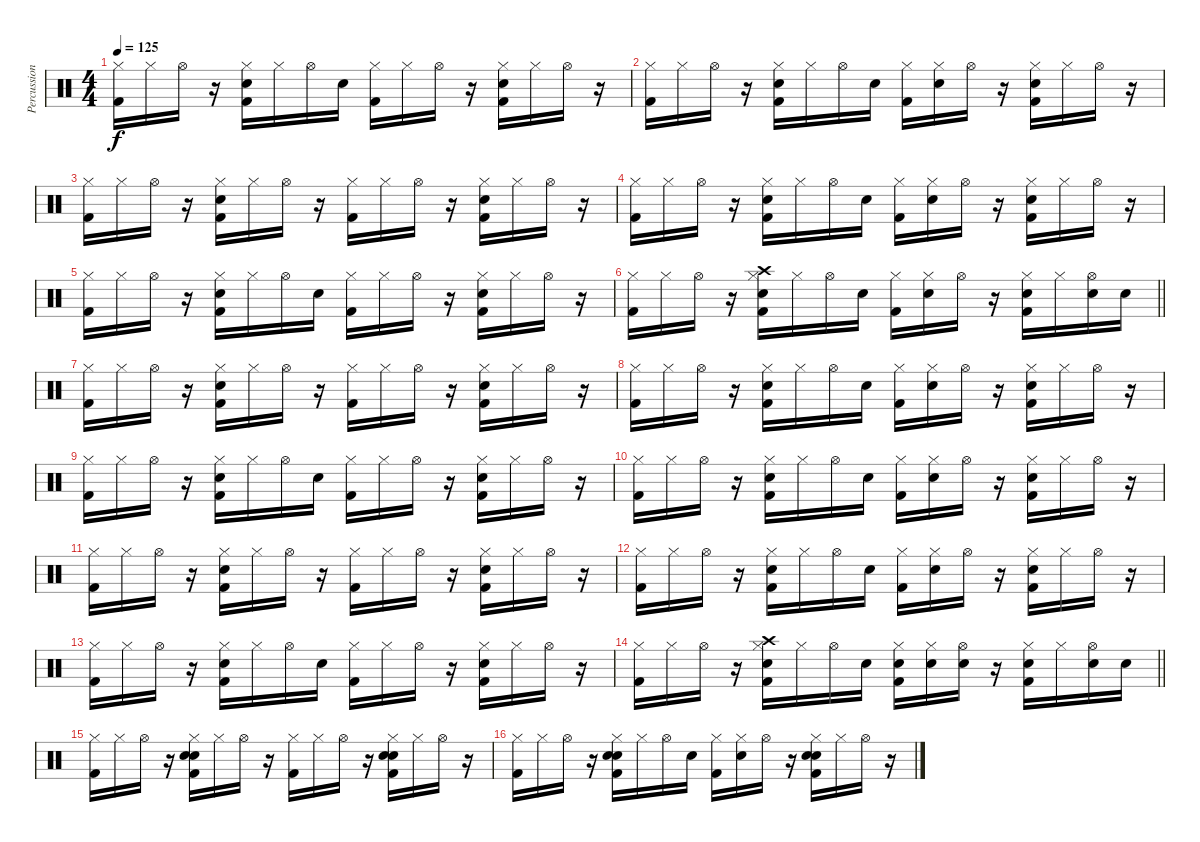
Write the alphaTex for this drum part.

\track ("Percussion" "Percussion") {instrument percussion}
\staff {score}
\articulation defaults
\ts (4 4)
\tempo 125
\clef neutral
\ks c
("Hi-Hat (closed)" "Kick (hit) 2").16{dy f} "Hi-Hat (closed)".16 "Hi-Hat (open)".16 r.16 ("Hi-Hat (closed)" "Electric Snare (hit)" "Kick (hit) 2").16 "Hi-Hat (closed)".16 "Hi-Hat (open)".16 "Electric Snare (hit)".16 ("Hi-Hat (closed)" "Kick (hit) 2").16 "Hi-Hat (closed)".16 "Hi-Hat (open)".16 r.16 ("Hi-Hat (closed)" "Electric Snare (hit)" "Kick (hit) 2").16 "Hi-Hat (closed)".16 "Hi-Hat (open)".16 r.16 |
("Hi-Hat (closed)" "Kick (hit) 2").16 "Hi-Hat (closed)".16 "Hi-Hat (open)".16 r.16 ("Hi-Hat (closed)" "Electric Snare (hit)" "Kick (hit) 2").16 "Hi-Hat (closed)".16 "Hi-Hat (open)".16 "Electric Snare (hit)".16 ("Hi-Hat (closed)" "Kick (hit) 2").16 ("Hi-Hat (closed)" "Electric Snare (hit)").16 "Hi-Hat (open)".16 r.16 ("Hi-Hat (closed)" "Electric Snare (hit)" "Kick (hit) 2").16 "Hi-Hat (closed)".16 "Hi-Hat (open)".16 r.16 |
("Hi-Hat (closed)" "Kick (hit) 2").16 "Hi-Hat (closed)".16 "Hi-Hat (open)".16 r.16 ("Hi-Hat (closed)" "Electric Snare (hit)" "Kick (hit) 2").16 "Hi-Hat (closed)".16 "Hi-Hat (open)".16 r.16 ("Hi-Hat (closed)" "Kick (hit) 2").16 "Hi-Hat (closed)".16 "Hi-Hat (open)".16 r.16 ("Hi-Hat (closed)" "Electric Snare (hit)" "Kick (hit) 2").16 "Hi-Hat (closed)".16 "Hi-Hat (open)".16 r.16 |
("Hi-Hat (closed)" "Kick (hit) 2").16 "Hi-Hat (closed)".16 "Hi-Hat (open)".16 r.16 ("Hi-Hat (closed)" "Electric Snare (hit)" "Kick (hit) 2").16 "Hi-Hat (closed)".16 "Hi-Hat (open)".16 "Electric Snare (hit)".16 ("Hi-Hat (closed)" "Kick (hit) 2").16 ("Hi-Hat (closed)" "Electric Snare (hit)").16 "Hi-Hat (open)".16 r.16 ("Hi-Hat (closed)" "Electric Snare (hit)" "Kick (hit) 2").16 "Hi-Hat (closed)".16 "Hi-Hat (open)".16 r.16 |
("Hi-Hat (closed)" "Kick (hit) 2").16 "Hi-Hat (closed)".16 "Hi-Hat (open)".16 r.16 ("Hi-Hat (closed)" "Electric Snare (hit)" "Kick (hit) 2").16 "Hi-Hat (closed)".16 "Hi-Hat (open)".16 "Electric Snare (hit)".16 ("Hi-Hat (closed)" "Kick (hit) 2").16 "Hi-Hat (closed)".16 "Hi-Hat (open)".16 r.16 ("Hi-Hat (closed)" "Electric Snare (hit)" "Kick (hit) 2").16 "Hi-Hat (closed)".16 "Hi-Hat (open)".16 r.16 |
\barLineRight lightlight
("Hi-Hat (closed)" "Kick (hit) 2").16 "Hi-Hat (closed)".16 "Hi-Hat (open)".16 r.16 ("Hi-Hat (closed)" "Crash high (hit)" "Electric Snare (hit)" "Kick (hit) 2").16 "Hi-Hat (closed)".16 "Hi-Hat (open)".16 "Electric Snare (hit)".16 ("Hi-Hat (closed)" "Kick (hit) 2").16 ("Hi-Hat (closed)" "Electric Snare (hit)").16 "Hi-Hat (open)".16 r.16 ("Hi-Hat (closed)" "Electric Snare (hit)" "Kick (hit) 2").16 "Hi-Hat (closed)".16 ("Hi-Hat (open)" "Electric Snare (hit)").16 "Electric Snare (hit)".16 |
("Hi-Hat (closed)" "Kick (hit) 2").16 "Hi-Hat (closed)".16 "Hi-Hat (open)".16 r.16 ("Hi-Hat (closed)" "Electric Snare (hit)" "Kick (hit) 2").16 "Hi-Hat (closed)".16 "Hi-Hat (open)".16 r.16 ("Hi-Hat (closed)" "Kick (hit) 2").16 "Hi-Hat (closed)".16 "Hi-Hat (open)".16 r.16 ("Hi-Hat (closed)" "Electric Snare (hit)" "Kick (hit) 2").16 "Hi-Hat (closed)".16 "Hi-Hat (open)".16 r.16 |
("Hi-Hat (closed)" "Kick (hit) 2").16 "Hi-Hat (closed)".16 "Hi-Hat (open)".16 r.16 ("Hi-Hat (closed)" "Electric Snare (hit)" "Kick (hit) 2").16 "Hi-Hat (closed)".16 "Hi-Hat (open)".16 "Electric Snare (hit)".16 ("Hi-Hat (closed)" "Kick (hit) 2").16 ("Hi-Hat (closed)" "Electric Snare (hit)").16 "Hi-Hat (open)".16 r.16 ("Hi-Hat (closed)" "Electric Snare (hit)" "Kick (hit) 2").16 "Hi-Hat (closed)".16 "Hi-Hat (open)".16 r.16 |
("Hi-Hat (closed)" "Kick (hit) 2").16 "Hi-Hat (closed)".16 "Hi-Hat (open)".16 r.16 ("Hi-Hat (closed)" "Electric Snare (hit)" "Kick (hit) 2").16 "Hi-Hat (closed)".16 "Hi-Hat (open)".16 "Electric Snare (hit)".16 ("Hi-Hat (closed)" "Kick (hit) 2").16 "Hi-Hat (closed)".16 "Hi-Hat (open)".16 r.16 ("Hi-Hat (closed)" "Electric Snare (hit)" "Kick (hit) 2").16 "Hi-Hat (closed)".16 "Hi-Hat (open)".16 r.16 |
("Hi-Hat (closed)" "Kick (hit) 2").16 "Hi-Hat (closed)".16 "Hi-Hat (open)".16 r.16 ("Hi-Hat (closed)" "Electric Snare (hit)" "Kick (hit) 2").16 "Hi-Hat (closed)".16 "Hi-Hat (open)".16 "Electric Snare (hit)".16 ("Hi-Hat (closed)" "Kick (hit) 2").16 ("Hi-Hat (closed)" "Electric Snare (hit)").16 "Hi-Hat (open)".16 r.16 ("Hi-Hat (closed)" "Electric Snare (hit)" "Kick (hit) 2").16 "Hi-Hat (closed)".16 "Hi-Hat (open)".16 r.16 |
("Hi-Hat (closed)" "Kick (hit) 2").16 "Hi-Hat (closed)".16 "Hi-Hat (open)".16 r.16 ("Hi-Hat (closed)" "Electric Snare (hit)" "Kick (hit) 2").16 "Hi-Hat (closed)".16 "Hi-Hat (open)".16 r.16 ("Hi-Hat (closed)" "Kick (hit) 2").16 "Hi-Hat (closed)".16 "Hi-Hat (open)".16 r.16 ("Hi-Hat (closed)" "Electric Snare (hit)" "Kick (hit) 2").16 "Hi-Hat (closed)".16 "Hi-Hat (open)".16 r.16 |
("Hi-Hat (closed)" "Kick (hit) 2").16 "Hi-Hat (closed)".16 "Hi-Hat (open)".16 r.16 ("Hi-Hat (closed)" "Electric Snare (hit)" "Kick (hit) 2").16 "Hi-Hat (closed)".16 "Hi-Hat (open)".16 "Electric Snare (hit)".16 ("Hi-Hat (closed)" "Kick (hit) 2").16 ("Hi-Hat (closed)" "Electric Snare (hit)").16 "Hi-Hat (open)".16 r.16 ("Hi-Hat (closed)" "Electric Snare (hit)" "Kick (hit) 2").16 "Hi-Hat (closed)".16 "Hi-Hat (open)".16 r.16 |
("Hi-Hat (closed)" "Kick (hit) 2").16 "Hi-Hat (closed)".16 "Hi-Hat (open)".16 r.16 ("Hi-Hat (closed)" "Electric Snare (hit)" "Kick (hit) 2").16 "Hi-Hat (closed)".16 "Hi-Hat (open)".16 "Electric Snare (hit)".16 ("Hi-Hat (closed)" "Kick (hit) 2").16 "Hi-Hat (closed)".16 "Hi-Hat (open)".16 r.16 ("Hi-Hat (closed)" "Electric Snare (hit)" "Kick (hit) 2").16 "Hi-Hat (closed)".16 "Hi-Hat (open)".16 r.16 |
\barLineRight lightlight
("Hi-Hat (closed)" "Kick (hit) 2").16 "Hi-Hat (closed)".16 "Hi-Hat (open)".16 r.16 ("Hi-Hat (closed)" "Crash high (hit)" "Electric Snare (hit)" "Kick (hit) 2").16 "Hi-Hat (closed)".16 "Hi-Hat (open)".16 "Electric Snare (hit)".16 ("Hi-Hat (closed)" "Electric Snare (hit)" "Kick (hit) 2").16 ("Hi-Hat (closed)" "Electric Snare (hit)").16 ("Hi-Hat (open)" "Electric Snare (hit)").16 r.16 ("Hi-Hat (closed)" "Electric Snare (hit)" "Kick (hit) 2").16 "Hi-Hat (closed)".16 ("Hi-Hat (open)" "Electric Snare (hit)").16 "Electric Snare (hit)".16 |
("Hi-Hat (closed)" "Kick (hit) 2").16 "Hi-Hat (closed)".16 "Hi-Hat (open)".16 r.16 ("Hi-Hat (closed)" "Hand Clap (hit)" "Electric Snare (hit)" "Kick (hit) 2").16 "Hi-Hat (closed)".16 "Hi-Hat (open)".16 r.16 ("Hi-Hat (closed)" "Kick (hit) 2").16 "Hi-Hat (closed)".16 "Hi-Hat (open)".16 r.16 ("Hi-Hat (closed)" "Hand Clap (hit)" "Electric Snare (hit)" "Kick (hit) 2").16 "Hi-Hat (closed)".16 "Hi-Hat (open)".16 r.16 |
("Hi-Hat (closed)" "Kick (hit) 2").16 "Hi-Hat (closed)".16 "Hi-Hat (open)".16 r.16 ("Hi-Hat (closed)" "Hand Clap (hit)" "Electric Snare (hit)" "Kick (hit) 2").16 "Hi-Hat (closed)".16 "Hi-Hat (open)".16 "Electric Snare (hit)".16 ("Hi-Hat (closed)" "Kick (hit) 2").16 ("Hi-Hat (closed)" "Electric Snare (hit)").16 "Hi-Hat (open)".16 r.16 ("Hi-Hat (closed)" "Hand Clap (hit)" "Electric Snare (hit)" "Kick (hit) 2").16 "Hi-Hat (closed)".16 "Hi-Hat (open)".16 r.16
